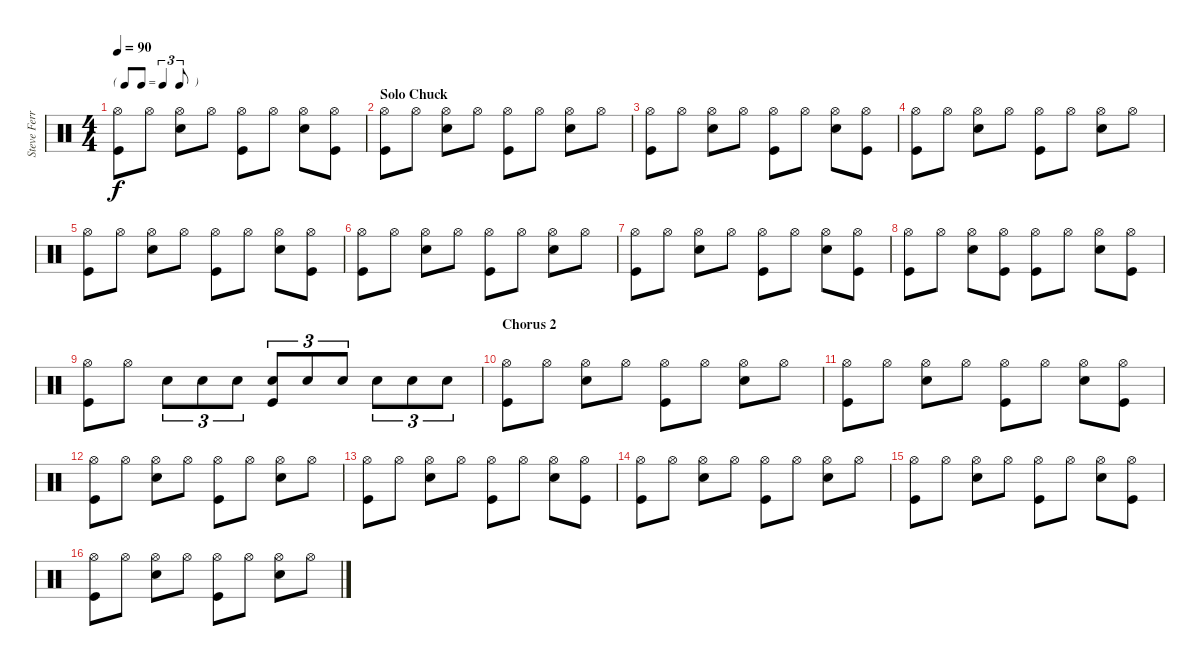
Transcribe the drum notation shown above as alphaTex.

\track ("Steve Ferrone" "Steve Ferr") {instrument percussion}
\staff {score}
\articulation defaults
\ts (4 4)
\tf triplet8th
\tempo 90
\clef neutral
\ks c
("Hi-Hat (open)" "Kick (hit)").8{dy f} "Hi-Hat (open)".8 ("Hi-Hat (open)" "Snare (hit) 2").8 "Hi-Hat (open)".8 ("Hi-Hat (open)" "Kick (hit)").8 "Hi-Hat (open)".8 ("Hi-Hat (open)" "Snare (hit) 2").8 ("Hi-Hat (open)" "Kick (hit)").8 |
\section ("" "Solo Chuck")
("Hi-Hat (open)" "Kick (hit)").8 "Hi-Hat (open)".8 ("Hi-Hat (open)" "Snare (hit) 2").8 "Hi-Hat (open)".8 ("Hi-Hat (open)" "Kick (hit)").8 "Hi-Hat (open)".8 ("Hi-Hat (open)" "Snare (hit) 2").8 "Hi-Hat (open)".8 |
("Hi-Hat (open)" "Kick (hit)").8 "Hi-Hat (open)".8 ("Hi-Hat (open)" "Snare (hit) 2").8 "Hi-Hat (open)".8 ("Hi-Hat (open)" "Kick (hit)").8 "Hi-Hat (open)".8 ("Hi-Hat (open)" "Snare (hit) 2").8 ("Hi-Hat (open)" "Kick (hit)").8 |
("Hi-Hat (open)" "Kick (hit)").8 "Hi-Hat (open)".8 ("Hi-Hat (open)" "Snare (hit) 2").8 "Hi-Hat (open)".8 ("Hi-Hat (open)" "Kick (hit)").8 "Hi-Hat (open)".8 ("Hi-Hat (open)" "Snare (hit) 2").8 "Hi-Hat (open)".8 |
("Hi-Hat (open)" "Kick (hit)").8 "Hi-Hat (open)".8 ("Hi-Hat (open)" "Snare (hit) 2").8 "Hi-Hat (open)".8 ("Hi-Hat (open)" "Kick (hit)").8 "Hi-Hat (open)".8 ("Hi-Hat (open)" "Snare (hit) 2").8 ("Hi-Hat (open)" "Kick (hit)").8 |
("Hi-Hat (open)" "Kick (hit)").8 "Hi-Hat (open)".8 ("Hi-Hat (open)" "Snare (hit) 2").8 "Hi-Hat (open)".8 ("Hi-Hat (open)" "Kick (hit)").8 "Hi-Hat (open)".8 ("Hi-Hat (open)" "Snare (hit) 2").8 "Hi-Hat (open)".8 |
("Hi-Hat (open)" "Kick (hit)").8 "Hi-Hat (open)".8 ("Hi-Hat (open)" "Snare (hit) 2").8 "Hi-Hat (open)".8 ("Hi-Hat (open)" "Kick (hit)").8 "Hi-Hat (open)".8 ("Hi-Hat (open)" "Snare (hit) 2").8 ("Hi-Hat (open)" "Kick (hit)").8 |
("Hi-Hat (open)" "Kick (hit)").8 "Hi-Hat (open)".8 ("Hi-Hat (open)" "Snare (hit) 2").8 ("Hi-Hat (open)" "Kick (hit)").8 ("Hi-Hat (open)" "Kick (hit)").8 "Hi-Hat (open)".8 ("Hi-Hat (open)" "Snare (hit) 2").8 ("Hi-Hat (open)" "Kick (hit)").8 |
("Hi-Hat (open)" "Kick (hit)").8 "Hi-Hat (open)".8 "Snare (hit) 2".8{tu (3 2)} "Snare (hit) 2".8{tu (3 2)} "Snare (hit) 2".8{tu (3 2)} ("Snare (hit) 2" "Kick (hit)").8{tu (3 2)} "Snare (hit) 2".8{tu (3 2)} "Snare (hit) 2".8{tu (3 2)} "Snare (hit) 2".8{tu (3 2)} "Snare (hit) 2".8{tu (3 2)} "Snare (hit) 2".8{tu (3 2)} |
\section ("" "Chorus 2")
("Hi-Hat (open)" "Kick (hit)").8 "Hi-Hat (open)".8 ("Hi-Hat (open)" "Snare (hit) 2").8 "Hi-Hat (open)".8 ("Hi-Hat (open)" "Kick (hit)").8 "Hi-Hat (open)".8 ("Hi-Hat (open)" "Snare (hit) 2").8 "Hi-Hat (open)".8 |
("Hi-Hat (open)" "Kick (hit)").8 "Hi-Hat (open)".8 ("Hi-Hat (open)" "Snare (hit) 2").8 "Hi-Hat (open)".8 ("Hi-Hat (open)" "Kick (hit)").8 "Hi-Hat (open)".8 ("Hi-Hat (open)" "Snare (hit) 2").8 ("Hi-Hat (open)" "Kick (hit)").8 |
("Hi-Hat (open)" "Kick (hit)").8 "Hi-Hat (open)".8 ("Hi-Hat (open)" "Snare (hit) 2").8 "Hi-Hat (open)".8 ("Hi-Hat (open)" "Kick (hit)").8 "Hi-Hat (open)".8 ("Hi-Hat (open)" "Snare (hit) 2").8 "Hi-Hat (open)".8 |
("Hi-Hat (open)" "Kick (hit)").8 "Hi-Hat (open)".8 ("Hi-Hat (open)" "Snare (hit) 2").8 "Hi-Hat (open)".8 ("Hi-Hat (open)" "Kick (hit)").8 "Hi-Hat (open)".8 ("Hi-Hat (open)" "Snare (hit) 2").8 ("Hi-Hat (open)" "Kick (hit)").8 |
("Hi-Hat (open)" "Kick (hit)").8 "Hi-Hat (open)".8 ("Hi-Hat (open)" "Snare (hit) 2").8 "Hi-Hat (open)".8 ("Hi-Hat (open)" "Kick (hit)").8 "Hi-Hat (open)".8 ("Hi-Hat (open)" "Snare (hit) 2").8 "Hi-Hat (open)".8 |
("Hi-Hat (open)" "Kick (hit)").8 "Hi-Hat (open)".8 ("Hi-Hat (open)" "Snare (hit) 2").8 "Hi-Hat (open)".8 ("Hi-Hat (open)" "Kick (hit)").8 "Hi-Hat (open)".8 ("Hi-Hat (open)" "Snare (hit) 2").8 ("Hi-Hat (open)" "Kick (hit)").8 |
("Hi-Hat (open)" "Kick (hit)").8 "Hi-Hat (open)".8 ("Hi-Hat (open)" "Snare (hit) 2").8 "Hi-Hat (open)".8 ("Hi-Hat (open)" "Kick (hit)").8 "Hi-Hat (open)".8 ("Hi-Hat (open)" "Snare (hit) 2").8 "Hi-Hat (open)".8
